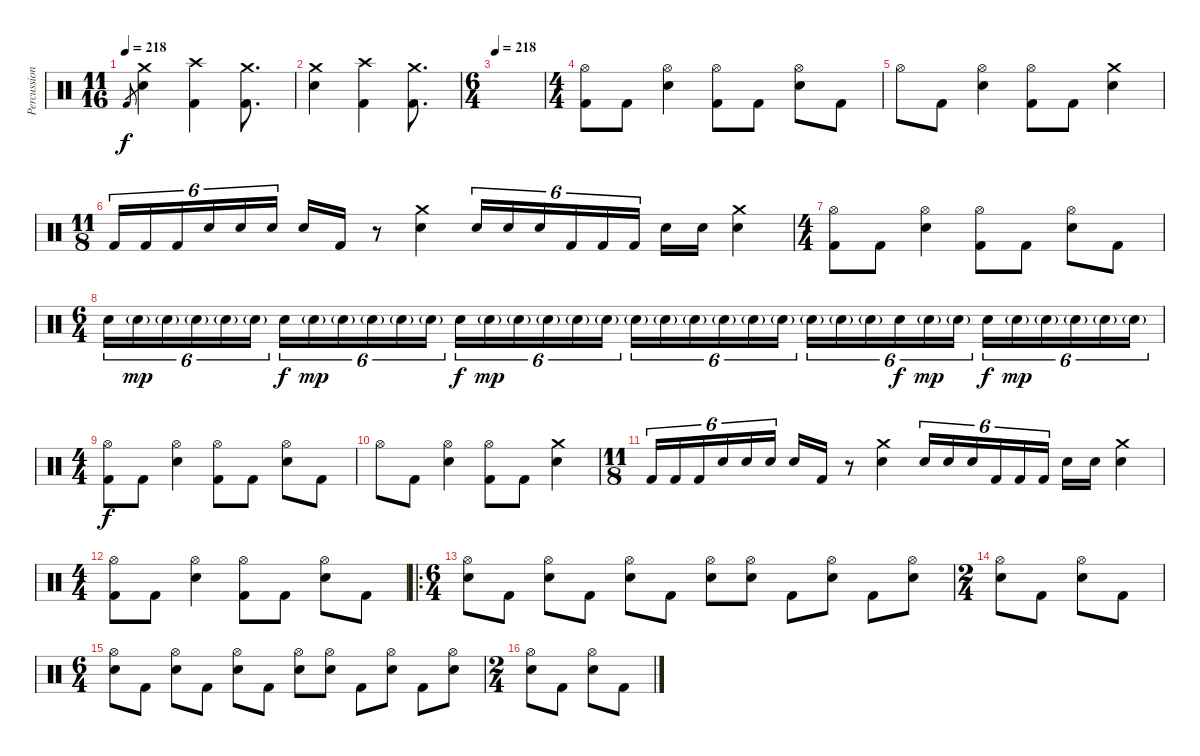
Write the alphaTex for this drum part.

\track ("Percussions" "Percussion") {instrument percussion}
\staff {score}
\articulation defaults
\ts (11 16)
\tempo 218
\clef neutral
\ks c "Kick (hit) 2".8{gr dy f}
("Crash medium (hit)" "Electric Snare (hit)").4 ("Crash high (hit)" "Kick (hit) 2").4 ("Crash medium (hit)" "Kick (hit) 2").8{d} |
("Crash medium (hit)" "Electric Snare (hit)").4 ("Crash high (hit)" "Kick (hit) 2").4 ("Crash medium (hit)" "Kick (hit) 2").8{d} |
\ts (6 4)
\tempo 218
|
\ts (4 4)
("Hi-Hat (open)" "Kick (hit) 2").8 "Kick (hit) 2".8 ("Hi-Hat (open)" "Electric Snare (hit)").4 ("Hi-Hat (open)" "Kick (hit) 2").8 "Kick (hit) 2".8 ("Hi-Hat (open)" "Electric Snare (hit)").8 "Kick (hit) 2".8 |
"Hi-Hat (open)".8 "Kick (hit) 2".8 ("Hi-Hat (open)" "Electric Snare (hit)").4 ("Hi-Hat (open)" "Kick (hit) 2").8 "Kick (hit) 2".8 ("Crash medium (hit)" "Electric Snare (hit)").4 |
\ts (11 8)
"Kick (hit) 2".16{tu (6 4)} "Kick (hit) 2".16{tu (6 4)} "Kick (hit) 2".16{tu (6 4)} "Electric Snare (hit)".16{tu (6 4)} "Electric Snare (hit)".16{tu (6 4)} "Electric Snare (hit)".16{tu (6 4)} "Electric Snare (hit)".16 "Kick (hit) 2".16 r.8 ("Crash medium (hit)" "Electric Snare (hit)").4 "Electric Snare (hit)".16{tu (6 4)} "Electric Snare (hit)".16{tu (6 4)} "Electric Snare (hit)".16{tu (6 4)} "Kick (hit) 2".16{tu (6 4)} "Kick (hit) 2".16{tu (6 4)} "Kick (hit) 2".16{tu (6 4)} "Electric Snare (hit)".16 "Electric Snare (hit)".16 ("Crash medium (hit)" "Electric Snare (hit)").4 |
\ts (4 4)
("Hi-Hat (open)" "Kick (hit) 2").8 "Kick (hit) 2".8 ("Hi-Hat (open)" "Electric Snare (hit)").4 ("Hi-Hat (open)" "Kick (hit) 2").8 "Kick (hit) 2".8 ("Hi-Hat (open)" "Electric Snare (hit)").8 "Kick (hit) 2".8 |
\ts (6 4)
"Electric Snare (hit)".16{tu (6 4)} "Electric Snare (hit)"{g}.16{tu (6 4) dy mp} "Electric Snare (hit)"{g}.16{tu (6 4)} "Electric Snare (hit)"{g}.16{tu (6 4)} "Electric Snare (hit)"{g}.16{tu (6 4)} "Electric Snare (hit)"{g}.16{tu (6 4)} "Electric Snare (hit)".16{tu (6 4) dy f} "Electric Snare (hit)"{g}.16{tu (6 4) dy mp} "Electric Snare (hit)"{g}.16{tu (6 4)} "Electric Snare (hit)"{g}.16{tu (6 4)} "Electric Snare (hit)"{g}.16{tu (6 4)} "Electric Snare (hit)"{g}.16{tu (6 4)} "Electric Snare (hit)".16{tu (6 4) dy f} "Electric Snare (hit)"{g}.16{tu (6 4) dy mp} "Electric Snare (hit)"{g}.16{tu (6 4)} "Electric Snare (hit)"{g}.16{tu (6 4)} "Electric Snare (hit)"{g}.16{tu (6 4)} "Electric Snare (hit)"{g}.16{tu (6 4)} "Electric Snare (hit)"{g}.16{tu (6 4)} "Electric Snare (hit)"{g}.16{tu (6 4)} "Electric Snare (hit)"{g}.16{tu (6 4)} "Electric Snare (hit)"{g}.16{tu (6 4)} "Electric Snare (hit)"{g}.16{tu (6 4)} "Electric Snare (hit)"{g}.16{tu (6 4)} "Electric Snare (hit)"{g}.16{tu (6 4)} "Electric Snare (hit)"{g}.16{tu (6 4)} "Electric Snare (hit)"{g}.16{tu (6 4)} "Electric Snare (hit)".16{tu (6 4) dy f} "Electric Snare (hit)"{g}.16{tu (6 4) dy mp} "Electric Snare (hit)"{g}.16{tu (6 4)} "Electric Snare (hit)".16{tu (6 4) dy f} "Electric Snare (hit)"{g}.16{tu (6 4) dy mp} "Electric Snare (hit)"{g}.16{tu (6 4)} "Electric Snare (hit)"{g}.16{tu (6 4)} "Electric Snare (hit)"{g}.16{tu (6 4)} "Electric Snare (hit)"{g}.16{tu (6 4)} |
\ts (4 4)
("Hi-Hat (open)" "Kick (hit) 2").8{dy f} "Kick (hit) 2".8 ("Hi-Hat (open)" "Electric Snare (hit)").4 ("Hi-Hat (open)" "Kick (hit) 2").8 "Kick (hit) 2".8 ("Hi-Hat (open)" "Electric Snare (hit)").8 "Kick (hit) 2".8 |
"Hi-Hat (open)".8 "Kick (hit) 2".8 ("Hi-Hat (open)" "Electric Snare (hit)").4 ("Hi-Hat (open)" "Kick (hit) 2").8 "Kick (hit) 2".8 ("Crash medium (hit)" "Electric Snare (hit)").4 |
\ts (11 8)
"Kick (hit) 2".16{tu (6 4)} "Kick (hit) 2".16{tu (6 4)} "Kick (hit) 2".16{tu (6 4)} "Electric Snare (hit)".16{tu (6 4)} "Electric Snare (hit)".16{tu (6 4)} "Electric Snare (hit)".16{tu (6 4)} "Electric Snare (hit)".16 "Kick (hit) 2".16 r.8 ("Crash medium (hit)" "Electric Snare (hit)").4 "Electric Snare (hit)".16{tu (6 4)} "Electric Snare (hit)".16{tu (6 4)} "Electric Snare (hit)".16{tu (6 4)} "Kick (hit) 2".16{tu (6 4)} "Kick (hit) 2".16{tu (6 4)} "Kick (hit) 2".16{tu (6 4)} "Electric Snare (hit)".16 "Electric Snare (hit)".16 ("Crash medium (hit)" "Electric Snare (hit)").4 |
\ts (4 4)
("Hi-Hat (open)" "Kick (hit) 2").8 "Kick (hit) 2".8 ("Hi-Hat (open)" "Electric Snare (hit)").4 ("Hi-Hat (open)" "Kick (hit) 2").8 "Kick (hit) 2".8 ("Hi-Hat (open)" "Electric Snare (hit)").8 "Kick (hit) 2".8 |
\ro
\ts (6 4)
("Hi-Hat (open)" "Electric Snare (hit)").8 "Kick (hit) 2".8 ("Hi-Hat (open)" "Electric Snare (hit)").8 "Kick (hit) 2".8 ("Hi-Hat (open)" "Electric Snare (hit)").8 "Kick (hit) 2".8 ("Hi-Hat (open)" "Electric Snare (hit)").8 ("Hi-Hat (open)" "Electric Snare (hit)").8 "Kick (hit) 2".8 ("Hi-Hat (open)" "Electric Snare (hit)").8 "Kick (hit) 2".8 ("Hi-Hat (open)" "Electric Snare (hit)").8 |
\ts (2 4)
("Hi-Hat (open)" "Electric Snare (hit)").8 "Kick (hit) 2".8 ("Hi-Hat (open)" "Electric Snare (hit)").8 "Kick (hit) 2".8 |
\ts (6 4)
("Hi-Hat (open)" "Electric Snare (hit)").8 "Kick (hit) 2".8 ("Hi-Hat (open)" "Electric Snare (hit)").8 "Kick (hit) 2".8 ("Hi-Hat (open)" "Electric Snare (hit)").8 "Kick (hit) 2".8 ("Hi-Hat (open)" "Electric Snare (hit)").8 ("Hi-Hat (open)" "Electric Snare (hit)").8 "Kick (hit) 2".8 ("Hi-Hat (open)" "Electric Snare (hit)").8 "Kick (hit) 2".8 ("Hi-Hat (open)" "Electric Snare (hit)").8 |
\ts (2 4)
("Hi-Hat (open)" "Electric Snare (hit)").8 "Kick (hit) 2".8 ("Hi-Hat (open)" "Electric Snare (hit)").8 "Kick (hit) 2".8
